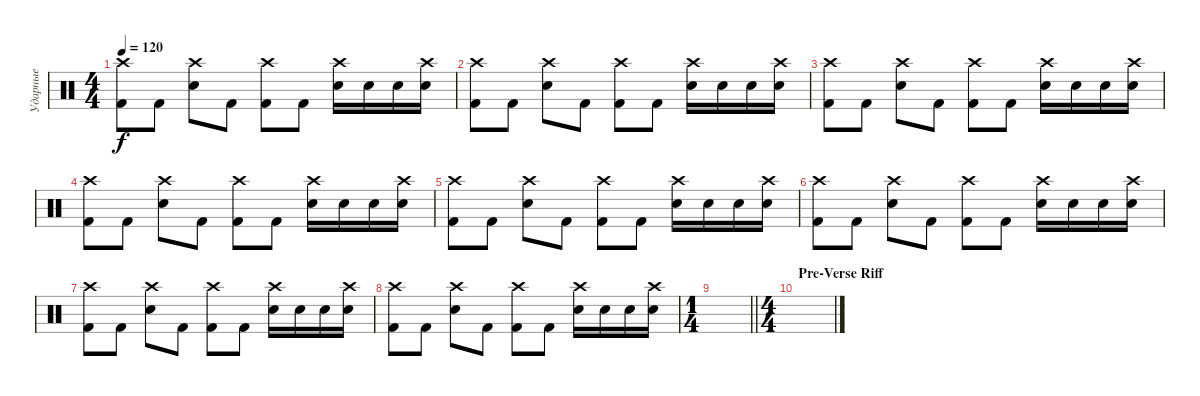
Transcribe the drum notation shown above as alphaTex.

\track ("Ударные" "Ударные") {instrument percussion}
\staff {score}
\articulation defaults
\ts (4 4)
\tempo 120
\clef neutral
\ks c
("Kick (hit) 2" "Crash high (hit)").8{dy f} "Kick (hit) 2".8 ("Electric Snare (hit)" "Crash high (hit)").8 "Kick (hit) 2".8 ("Kick (hit) 2" "Crash high (hit)").8 "Kick (hit) 2".8 ("Electric Snare (hit)" "Crash high (hit)").16 "Electric Snare (hit)".16 "Electric Snare (hit)".16 ("Electric Snare (hit)" "Crash high (hit)").16 |
("Kick (hit) 2" "Crash high (hit)").8 "Kick (hit) 2".8 ("Electric Snare (hit)" "Crash high (hit)").8 "Kick (hit) 2".8 ("Kick (hit) 2" "Crash high (hit)").8 "Kick (hit) 2".8 ("Electric Snare (hit)" "Crash high (hit)").16 "Electric Snare (hit)".16 "Electric Snare (hit)".16 ("Electric Snare (hit)" "Crash high (hit)").16 |
("Kick (hit) 2" "Crash high (hit)").8 "Kick (hit) 2".8 ("Electric Snare (hit)" "Crash high (hit)").8 "Kick (hit) 2".8 ("Kick (hit) 2" "Crash high (hit)").8 "Kick (hit) 2".8 ("Electric Snare (hit)" "Crash high (hit)").16 "Electric Snare (hit)".16 "Electric Snare (hit)".16 ("Electric Snare (hit)" "Crash high (hit)").16 |
("Kick (hit) 2" "Crash high (hit)").8 "Kick (hit) 2".8 ("Electric Snare (hit)" "Crash high (hit)").8 "Kick (hit) 2".8 ("Kick (hit) 2" "Crash high (hit)").8 "Kick (hit) 2".8 ("Electric Snare (hit)" "Crash high (hit)").16 "Electric Snare (hit)".16 "Electric Snare (hit)".16 ("Electric Snare (hit)" "Crash high (hit)").16 |
("Kick (hit) 2" "Crash high (hit)").8 "Kick (hit) 2".8 ("Electric Snare (hit)" "Crash high (hit)").8 "Kick (hit) 2".8 ("Kick (hit) 2" "Crash high (hit)").8 "Kick (hit) 2".8 ("Electric Snare (hit)" "Crash high (hit)").16 "Electric Snare (hit)".16 "Electric Snare (hit)".16 ("Electric Snare (hit)" "Crash high (hit)").16 |
("Kick (hit) 2" "Crash high (hit)").8 "Kick (hit) 2".8 ("Electric Snare (hit)" "Crash high (hit)").8 "Kick (hit) 2".8 ("Kick (hit) 2" "Crash high (hit)").8 "Kick (hit) 2".8 ("Electric Snare (hit)" "Crash high (hit)").16 "Electric Snare (hit)".16 "Electric Snare (hit)".16 ("Electric Snare (hit)" "Crash high (hit)").16 |
("Kick (hit) 2" "Crash high (hit)").8 "Kick (hit) 2".8 ("Electric Snare (hit)" "Crash high (hit)").8 "Kick (hit) 2".8 ("Kick (hit) 2" "Crash high (hit)").8 "Kick (hit) 2".8 ("Electric Snare (hit)" "Crash high (hit)").16 "Electric Snare (hit)".16 "Electric Snare (hit)".16 ("Electric Snare (hit)" "Crash high (hit)").16 |
("Kick (hit) 2" "Crash high (hit)").8 "Kick (hit) 2".8 ("Electric Snare (hit)" "Crash high (hit)").8 "Kick (hit) 2".8 ("Kick (hit) 2" "Crash high (hit)").8 "Kick (hit) 2".8 ("Electric Snare (hit)" "Crash high (hit)").16 "Electric Snare (hit)".16 "Electric Snare (hit)".16 ("Electric Snare (hit)" "Crash high (hit)").16 |
\ts (1 4)
\barLineRight lightlight
|
\ts (4 4)
\section ("" "Pre-Verse Riff")
